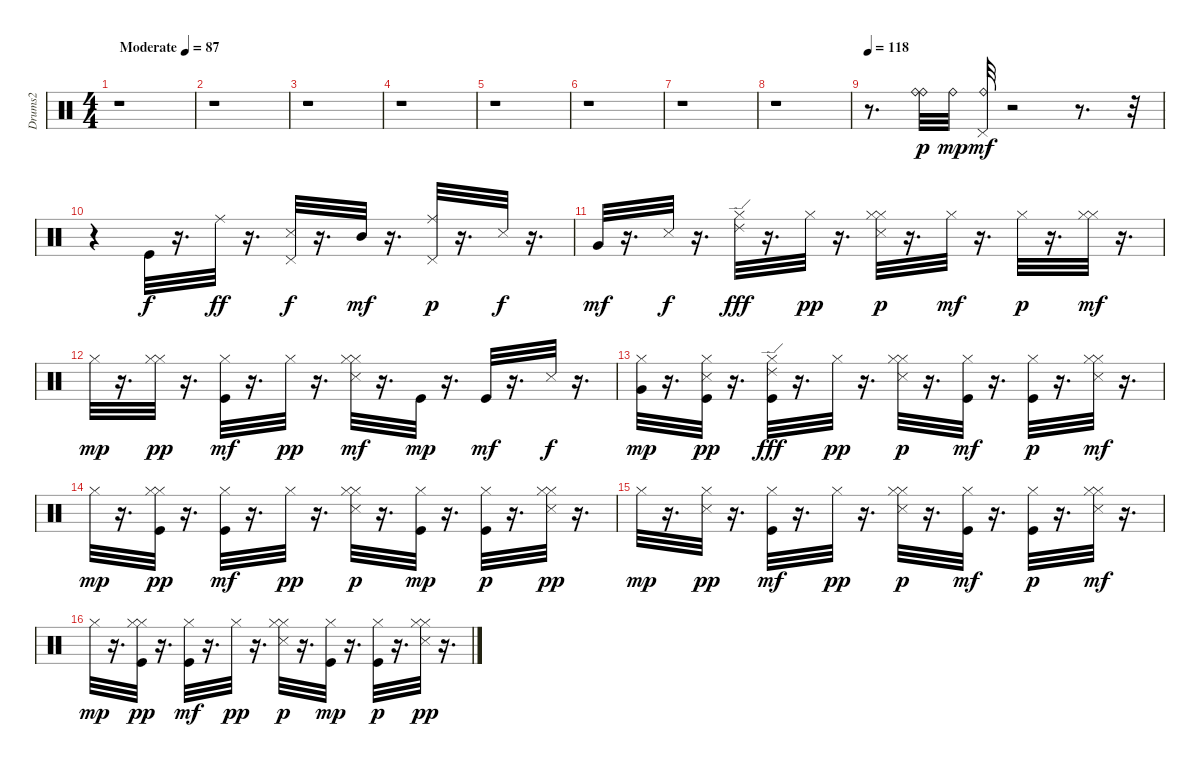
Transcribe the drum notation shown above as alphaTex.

\track ("Drums2" "Drums2") {instrument percussion}
\staff {score}
\articulation defaults
\ts (4 4)
\tempo (87 "Moderate")
\clef neutral
\ks c
r.1{dy p} |
r.1 |
r.1 |
r.1 |
r.1 |
r.1 |
r.1 |
r.1 |
\tempo 118
r.8{d} ("Ride (bell)" "Ride (bell)").32{balance 8} "Ride (bell)".32{dy mp} ("Ride (bell)" "Pedal Hi-Hat (hit)").32{dy mf} r.2 r.8{d} r.32 |
r.4 "Kick (hit)".32{dy f} r.16{d} "Ride (middle)".32{dy ff} r.16{d} ("Snare (side stick) 3" "Pedal Hi-Hat (hit)").32{dy f} r.16{d} "Mid Tom (hit)".32{dy mf} r.16{d} ("Ride (middle)" "Pedal Hi-Hat (hit)").32{dy p} r.16{d} "Snare (side stick) 3".32{dy f} r.16{d} |
"Very Low Tom (hit)".32{dy mf} r.16{d} "Snare (side stick) 3".32{dy f} r.16{d} ("Ride (edge) 2" "Hi-Hat (closed)").32{dy fff} r.16{d} "Hi-Hat (closed)".32{dy pp} r.16{d} ("Hi-Hat (closed)" "Snare (side stick) 3" "Hi-Hat (closed)").32{dy p} r.16{d} "Hi-Hat (closed)".32{dy mf} r.16{d} "Hi-Hat (closed)".32{dy p} r.16{d} ("Hi-Hat (closed)" "Hi-Hat (closed)").32{dy mf} r.16{d} |
"Hi-Hat (closed)".32{dy mp} r.16{d} ("Hi-Hat (closed)" "Hi-Hat (closed)").32{dy pp} r.16{d} ("Kick (hit)" "Hi-Hat (closed)").32{dy mf} r.16{d} "Hi-Hat (closed)".32{dy pp} r.16{d} ("Hi-Hat (closed)" "Snare (side stick) 3" "Hi-Hat (closed)").32{dy mf} r.16{d} "Kick (hit)".32{dy mp} r.16{d} "Kick (hit)".32{dy mf} r.16{d} "Snare (side stick) 3".32{dy f} r.16{d} |
("Hi-Hat (closed)" "Very Low Tom (hit)").32{dy mp} r.16{d} ("Kick (hit)" "Snare (side stick) 3" "Hi-Hat (closed)").32{dy pp} r.16{d} ("Kick (hit)" "Hi-Hat (closed)" "Ride (edge) 2").32{dy fff} r.16{d} "Hi-Hat (closed)".32{dy pp} r.16{d} ("Hi-Hat (closed)" "Snare (side stick) 3" "Hi-Hat (closed)").32{dy p} r.16{d} ("Kick (hit)" "Hi-Hat (closed)").32{dy mf} r.16{d} ("Kick (hit)" "Hi-Hat (closed)").32{dy p} r.16{d} ("Hi-Hat (closed)" "Snare (side stick) 3" "Hi-Hat (closed)").32{dy mf} r.16{d} |
"Hi-Hat (closed)".32{dy mp} r.16{d} ("Hi-Hat (closed)" "Kick (hit)" "Hi-Hat (closed)").32{dy pp} r.16{d} ("Kick (hit)" "Hi-Hat (closed)").32{dy mf} r.16{d} "Hi-Hat (closed)".32{dy pp} r.16{d} ("Hi-Hat (closed)" "Snare (side stick) 3" "Hi-Hat (closed)").32{dy p} r.16{d} ("Kick (hit)" "Hi-Hat (closed)").32{dy mp} r.16{d} ("Kick (hit)" "Hi-Hat (closed)").32{dy p} r.16{d} ("Hi-Hat (closed)" "Snare (side stick) 3" "Hi-Hat (closed)").32{dy pp} r.16{d} |
"Hi-Hat (closed)".32{dy mp} r.16{d} ("Snare (side stick) 3" "Hi-Hat (closed)").32{dy pp} r.16{d} ("Kick (hit)" "Hi-Hat (closed)").32{dy mf} r.16{d} "Hi-Hat (closed)".32{dy pp} r.16{d} ("Hi-Hat (closed)" "Snare (side stick) 3" "Hi-Hat (closed)").32{dy p} r.16{d} ("Kick (hit)" "Hi-Hat (closed)").32{dy mf} r.16{d} ("Kick (hit)" "Hi-Hat (closed)").32{dy p} r.16{d} ("Hi-Hat (closed)" "Snare (side stick) 3" "Hi-Hat (closed)").32{dy mf} r.16{d} |
"Hi-Hat (closed)".32{dy mp} r.16{d} ("Hi-Hat (closed)" "Kick (hit)" "Hi-Hat (closed)").32{dy pp} r.16{d} ("Kick (hit)" "Hi-Hat (closed)").32{dy mf} r.16{d} "Hi-Hat (closed)".32{dy pp} r.16{d} ("Hi-Hat (closed)" "Snare (side stick) 3" "Hi-Hat (closed)").32{dy p} r.16{d} ("Kick (hit)" "Hi-Hat (closed)").32{dy mp} r.16{d} ("Kick (hit)" "Hi-Hat (closed)").32{dy p} r.16{d} ("Hi-Hat (closed)" "Snare (side stick) 3" "Hi-Hat (closed)").32{dy pp} r.16{d}
